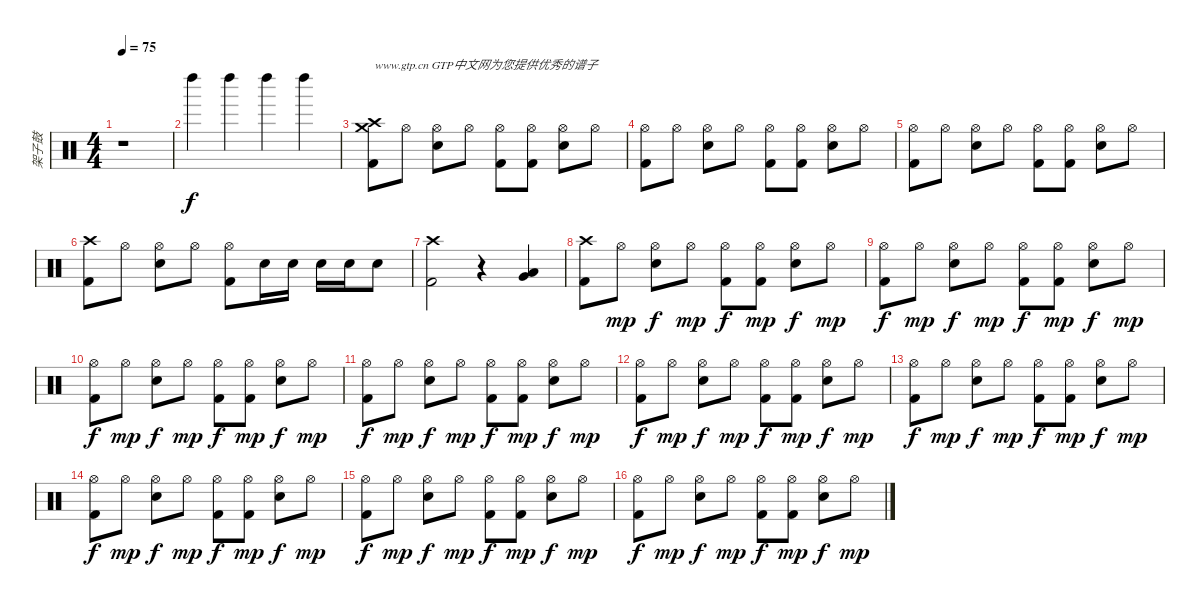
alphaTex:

\track ("架子鼓" "架子鼓") {instrument percussion}
\staff {score}
\articulation defaults
\ts (4 4)
\tempo 75
\clef neutral
\ks c
r.1{dy f} |
"Left Maraca (hit)".4 "Left Maraca (hit)".4 "Left Maraca (hit)".4 "Left Maraca (hit)".4 |
("Crash high (hit)" "Crash medium (hit)" "Kick (hit) 2").8{txt "www.gtp.cn GTP中文网为您提供优秀的谱子"} "Hi-Hat (open)".8 ("Hi-Hat (open)" "Electric Snare (hit)").8 "Hi-Hat (open)".8 ("Hi-Hat (open)" "Kick (hit) 2").8 ("Hi-Hat (open)" "Kick (hit) 2").8 ("Hi-Hat (open)" "Electric Snare (hit)").8 "Hi-Hat (open)".8 |
("Hi-Hat (open)" "Kick (hit) 2").8 "Hi-Hat (open)".8 ("Hi-Hat (open)" "Electric Snare (hit)").8 "Hi-Hat (open)".8 ("Hi-Hat (open)" "Kick (hit) 2").8 ("Hi-Hat (open)" "Kick (hit) 2").8 ("Hi-Hat (open)" "Electric Snare (hit)").8 "Hi-Hat (open)".8 |
("Hi-Hat (open)" "Kick (hit) 2").8 "Hi-Hat (open)".8 ("Hi-Hat (open)" "Electric Snare (hit)").8 "Hi-Hat (open)".8 ("Hi-Hat (open)" "Kick (hit) 2").8 ("Hi-Hat (open)" "Kick (hit) 2").8 ("Hi-Hat (open)" "Electric Snare (hit)").8 "Hi-Hat (open)".8 |
("Crash high (hit)" "Kick (hit) 2").8 "Hi-Hat (open)".8 ("Hi-Hat (open)" "Electric Snare (hit)").8 "Hi-Hat (open)".8 ("Hi-Hat (open)" "Kick (hit) 2").8 "Electric Snare (hit)".16 "Electric Snare (hit)".16 "Electric Snare (hit)".16 "Electric Snare (hit)".16 "Electric Snare (hit)".8 |
("Crash high (hit)" "Kick (hit) 2").2 r.4 ("Very Low Tom (hit)" "Low Tom (hit)").4 |
("Crash high (hit)" "Kick (hit) 2").8 "Hi-Hat (open)".8{dy mp} ("Hi-Hat (open)" "Electric Snare (hit)").8{dy f} "Hi-Hat (open)".8{dy mp} ("Hi-Hat (open)" "Kick (hit) 2").8{dy f} ("Hi-Hat (open)" "Kick (hit) 2").8{dy mp} ("Hi-Hat (open)" "Electric Snare (hit)").8{dy f} "Hi-Hat (open)".8{dy mp} |
("Hi-Hat (open)" "Kick (hit) 2").8{dy f} "Hi-Hat (open)".8{dy mp} ("Hi-Hat (open)" "Electric Snare (hit)").8{dy f} "Hi-Hat (open)".8{dy mp} ("Hi-Hat (open)" "Kick (hit) 2").8{dy f} ("Hi-Hat (open)" "Kick (hit) 2").8{dy mp} ("Hi-Hat (open)" "Electric Snare (hit)").8{dy f} "Hi-Hat (open)".8{dy mp} |
("Hi-Hat (open)" "Kick (hit) 2").8{dy f} "Hi-Hat (open)".8{dy mp} ("Hi-Hat (open)" "Electric Snare (hit)").8{dy f} "Hi-Hat (open)".8{dy mp} ("Hi-Hat (open)" "Kick (hit) 2").8{dy f} ("Hi-Hat (open)" "Kick (hit) 2").8{dy mp} ("Hi-Hat (open)" "Electric Snare (hit)").8{dy f} "Hi-Hat (open)".8{dy mp} |
("Hi-Hat (open)" "Kick (hit) 2").8{dy f} "Hi-Hat (open)".8{dy mp} ("Hi-Hat (open)" "Electric Snare (hit)").8{dy f} "Hi-Hat (open)".8{dy mp} ("Hi-Hat (open)" "Kick (hit) 2").8{dy f} ("Hi-Hat (open)" "Kick (hit) 2").8{dy mp} ("Hi-Hat (open)" "Electric Snare (hit)").8{dy f} "Hi-Hat (open)".8{dy mp} |
("Hi-Hat (open)" "Kick (hit) 2").8{dy f} "Hi-Hat (open)".8{dy mp} ("Hi-Hat (open)" "Electric Snare (hit)").8{dy f} "Hi-Hat (open)".8{dy mp} ("Hi-Hat (open)" "Kick (hit) 2").8{dy f} ("Hi-Hat (open)" "Kick (hit) 2").8{dy mp} ("Hi-Hat (open)" "Electric Snare (hit)").8{dy f} "Hi-Hat (open)".8{dy mp} |
("Hi-Hat (open)" "Kick (hit) 2").8{dy f} "Hi-Hat (open)".8{dy mp} ("Hi-Hat (open)" "Electric Snare (hit)").8{dy f} "Hi-Hat (open)".8{dy mp} ("Hi-Hat (open)" "Kick (hit) 2").8{dy f} ("Hi-Hat (open)" "Kick (hit) 2").8{dy mp} ("Hi-Hat (open)" "Electric Snare (hit)").8{dy f} "Hi-Hat (open)".8{dy mp} |
("Hi-Hat (open)" "Kick (hit) 2").8{dy f} "Hi-Hat (open)".8{dy mp} ("Hi-Hat (open)" "Electric Snare (hit)").8{dy f} "Hi-Hat (open)".8{dy mp} ("Hi-Hat (open)" "Kick (hit) 2").8{dy f} ("Hi-Hat (open)" "Kick (hit) 2").8{dy mp} ("Hi-Hat (open)" "Electric Snare (hit)").8{dy f} "Hi-Hat (open)".8{dy mp} |
("Hi-Hat (open)" "Kick (hit) 2").8{dy f} "Hi-Hat (open)".8{dy mp} ("Hi-Hat (open)" "Electric Snare (hit)").8{dy f} "Hi-Hat (open)".8{dy mp} ("Hi-Hat (open)" "Kick (hit) 2").8{dy f} ("Hi-Hat (open)" "Kick (hit) 2").8{dy mp} ("Hi-Hat (open)" "Electric Snare (hit)").8{dy f} "Hi-Hat (open)".8{dy mp} |
("Hi-Hat (open)" "Kick (hit) 2").8{dy f} "Hi-Hat (open)".8{dy mp} ("Hi-Hat (open)" "Electric Snare (hit)").8{dy f} "Hi-Hat (open)".8{dy mp} ("Hi-Hat (open)" "Kick (hit) 2").8{dy f} ("Hi-Hat (open)" "Kick (hit) 2").8{dy mp} ("Hi-Hat (open)" "Electric Snare (hit)").8{dy f} "Hi-Hat (open)".8{dy mp}
